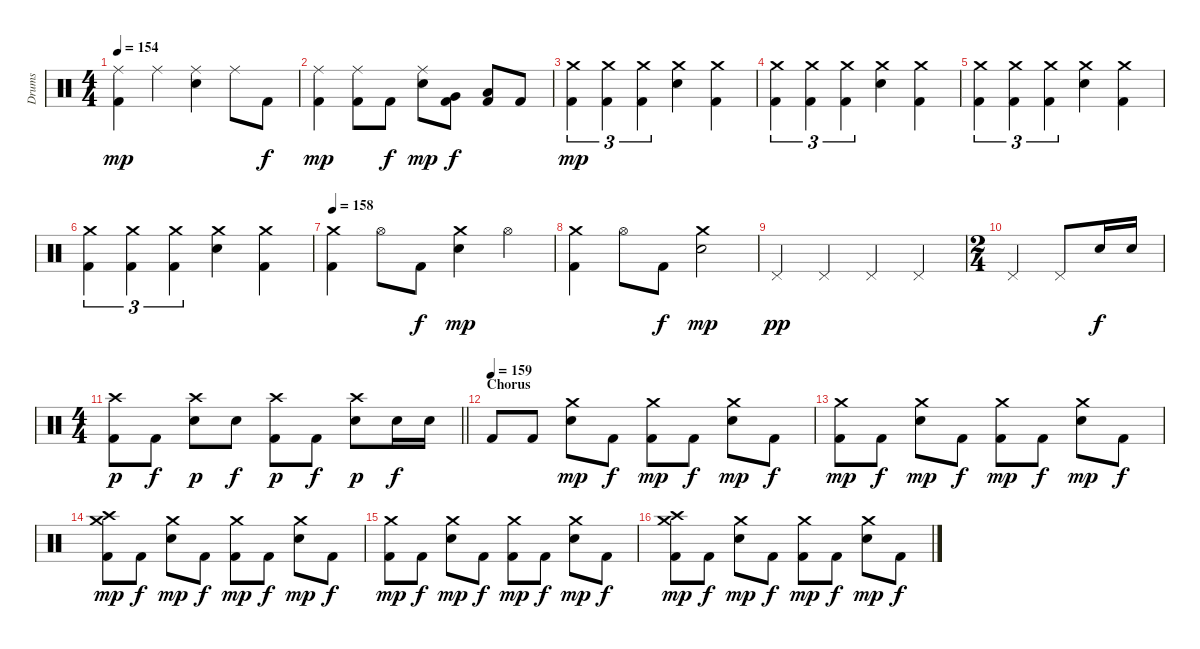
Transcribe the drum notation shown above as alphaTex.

\track ("Drums" "Drums") {instrument percussion}
\staff {score}
\articulation defaults
\ts (4 4)
\tempo 154
\clef neutral
\ks c
("Ride (middle)" "Kick (hit) 2").4{dy mp} "Ride (middle)".4 ("Ride (middle)" "Electric Snare (hit)").4 "Ride (middle)".8 "Kick (hit) 2".8{dy f} |
("Ride (middle)" "Kick (hit) 2").4{dy mp} ("Ride (middle)" "Kick (hit) 2").8 "Kick (hit) 2".8{dy f} ("Ride (middle)" "Electric Snare (hit)").8{dy mp} ("Very Low Tom (hit)" "Kick (hit) 2").8{dy f} ("Low Floor Tom (hit)" "Kick (hit) 2").8 "Kick (hit) 2".8 |
("Crash medium (hit)" "Kick (hit) 2").4{tu (3 2) dy mp} ("Crash medium (hit)" "Kick (hit) 2").4{tu (3 2)} ("Crash medium (hit)" "Kick (hit) 2").4{tu (3 2)} ("Crash medium (hit)" "Electric Snare (hit)").4 ("Crash medium (hit)" "Kick (hit) 2").4 |
("Crash medium (hit)" "Kick (hit) 2").4{tu (3 2)} ("Crash medium (hit)" "Kick (hit) 2").4{tu (3 2)} ("Crash medium (hit)" "Kick (hit) 2").4{tu (3 2)} ("Crash medium (hit)" "Electric Snare (hit)").4 ("Crash medium (hit)" "Kick (hit) 2").4 |
("Crash medium (hit)" "Kick (hit) 2").4{tu (3 2)} ("Crash medium (hit)" "Kick (hit) 2").4{tu (3 2)} ("Crash medium (hit)" "Kick (hit) 2").4{tu (3 2)} ("Crash medium (hit)" "Electric Snare (hit)").4 ("Crash medium (hit)" "Kick (hit) 2").4 |
("Crash medium (hit)" "Kick (hit) 2").4{tu (3 2)} ("Crash medium (hit)" "Kick (hit) 2").4{tu (3 2)} ("Crash medium (hit)" "Kick (hit) 2").4{tu (3 2)} ("Crash medium (hit)" "Electric Snare (hit)").4 ("Crash medium (hit)" "Kick (hit) 2").4 |
\tempo 158
("Crash medium (hit)" "Kick (hit) 2").4 "Hi-Hat (open)".8 "Kick (hit) 2".8{dy f} ("Crash medium (hit)" "Electric Snare (hit)").4{dy mp} "Hi-Hat (open)".4 |
("Crash medium (hit)" "Kick (hit) 2").4 "Hi-Hat (open)".8 "Kick (hit) 2".8{dy f} ("Crash medium (hit)" "Electric Snare (hit)").2{dy mp} |
"Pedal Hi-Hat (hit)".4{dy pp} "Pedal Hi-Hat (hit)".4 "Pedal Hi-Hat (hit)".4 "Pedal Hi-Hat (hit)".4 |
\ts (2 4)
"Pedal Hi-Hat (hit)".4 "Pedal Hi-Hat (hit)".8 "Electric Snare (hit)".16{dy f} "Electric Snare (hit)".16 |
\ts (4 4)
\barLineRight lightlight
("Crash high (hit)" "Kick (hit) 2").8{dy p} "Kick (hit) 2".8{dy f} ("Crash high (hit)" "Electric Snare (hit)").8{dy p} "Electric Snare (hit)".8{dy f} ("Crash high (hit)" "Kick (hit) 2").8{dy p} "Kick (hit) 2".8{dy f} ("Crash high (hit)" "Electric Snare (hit)").8{dy p} "Electric Snare (hit)".16{dy f} "Electric Snare (hit)".16 |
\section ("" "Chorus")
\tempo (159)
"Kick (hit) 2".8 "Kick (hit) 2".8 ("Crash medium (hit)" "Electric Snare (hit)").8{dy mp} "Kick (hit) 2".8{dy f} ("Crash medium (hit)" "Kick (hit) 2").8{dy mp} "Kick (hit) 2".8{dy f} ("Crash medium (hit)" "Electric Snare (hit)").8{dy mp} "Kick (hit) 2".8{dy f} |
("Crash medium (hit)" "Kick (hit) 2").8{dy mp} "Kick (hit) 2".8{dy f} ("Crash medium (hit)" "Electric Snare (hit)").8{dy mp} "Kick (hit) 2".8{dy f} ("Crash medium (hit)" "Kick (hit) 2").8{dy mp} "Kick (hit) 2".8{dy f} ("Crash medium (hit)" "Electric Snare (hit)").8{dy mp} "Kick (hit) 2".8{dy f} |
("Crash high (hit)" "Crash medium (hit)" "Kick (hit) 2").8{dy mp} "Kick (hit) 2".8{dy f} ("Crash medium (hit)" "Electric Snare (hit)").8{dy mp} "Kick (hit) 2".8{dy f} ("Crash medium (hit)" "Kick (hit) 2").8{dy mp} "Kick (hit) 2".8{dy f} ("Crash medium (hit)" "Electric Snare (hit)").8{dy mp} "Kick (hit) 2".8{dy f} |
("Crash medium (hit)" "Kick (hit) 2").8{dy mp} "Kick (hit) 2".8{dy f} ("Crash medium (hit)" "Electric Snare (hit)").8{dy mp} "Kick (hit) 2".8{dy f} ("Crash medium (hit)" "Kick (hit) 2").8{dy mp} "Kick (hit) 2".8{dy f} ("Crash medium (hit)" "Electric Snare (hit)").8{dy mp} "Kick (hit) 2".8{dy f} |
("Crash high (hit)" "Crash medium (hit)" "Kick (hit) 2").8{dy mp} "Kick (hit) 2".8{dy f} ("Crash medium (hit)" "Electric Snare (hit)").8{dy mp} "Kick (hit) 2".8{dy f} ("Crash medium (hit)" "Kick (hit) 2").8{dy mp} "Kick (hit) 2".8{dy f} ("Crash medium (hit)" "Electric Snare (hit)").8{dy mp} "Kick (hit) 2".8{dy f}
